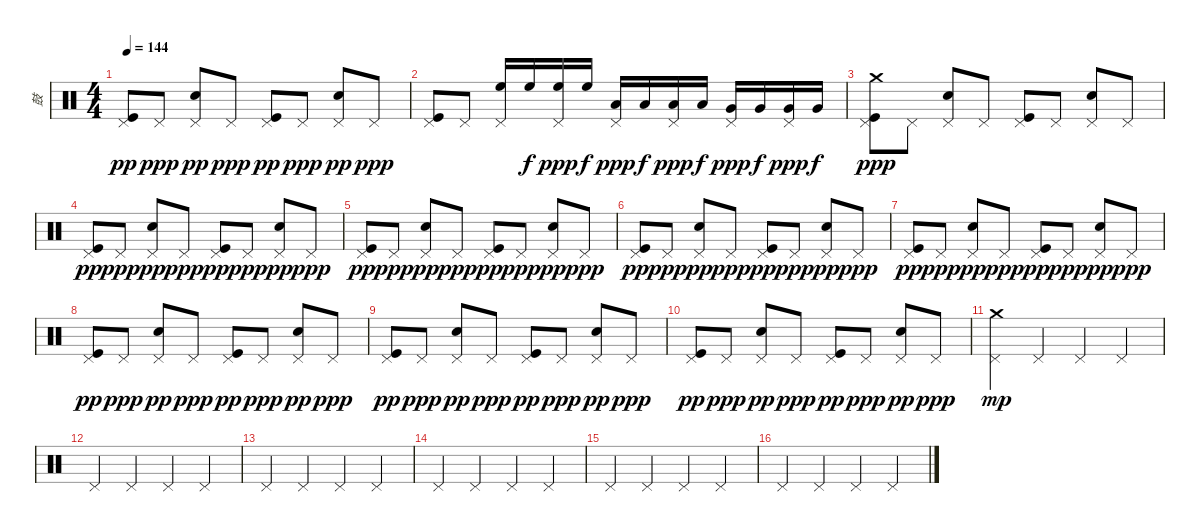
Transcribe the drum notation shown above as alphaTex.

\track ("鼓" "鼓") {instrument percussion}
\staff {score}
\articulation defaults
\ts (4 4)
\tempo 144
\clef neutral
\ks c
("Kick (hit)" "Pedal Hi-Hat (hit)").8{dy pp} "Pedal Hi-Hat (hit)".8{dy ppp} ("Snare (hit) 2" "Pedal Hi-Hat (hit)").8{dy pp} "Pedal Hi-Hat (hit)".8{dy ppp} ("Kick (hit)" "Pedal Hi-Hat (hit)").8{dy pp} "Pedal Hi-Hat (hit)".8{dy ppp} ("Snare (hit) 2" "Pedal Hi-Hat (hit)").8{dy pp} "Pedal Hi-Hat (hit)".8{dy ppp} |
("Kick (hit)" "Pedal Hi-Hat (hit)").8 "Pedal Hi-Hat (hit)".8 ("High Floor Tom (hit)" "Pedal Hi-Hat (hit)").16 "High Floor Tom (hit)".16{dy f} ("High Floor Tom (hit)" "Pedal Hi-Hat (hit)").16{dy ppp} "High Floor Tom (hit)".16{dy f} ("Low Tom (hit)" "Pedal Hi-Hat (hit)").16{dy ppp} "Low Tom (hit)".16{dy f} ("Low Tom (hit)" "Pedal Hi-Hat (hit)").16{dy ppp} "Low Tom (hit)".16{dy f} ("Very Low Tom (hit)" "Pedal Hi-Hat (hit)").16{dy ppp} "Very Low Tom (hit)".16{dy f} ("Very Low Tom (hit)" "Pedal Hi-Hat (hit)").16{dy ppp} "Very Low Tom (hit)".16{dy f} |
("Crash medium (hit)" "Kick (hit)" "Pedal Hi-Hat (hit)").8{dy ppp} "Pedal Hi-Hat (hit)".8 ("Snare (hit) 2" "Pedal Hi-Hat (hit)").8 "Pedal Hi-Hat (hit)".8 ("Kick (hit)" "Pedal Hi-Hat (hit)").8 "Pedal Hi-Hat (hit)".8 ("Snare (hit) 2" "Pedal Hi-Hat (hit)").8 "Pedal Hi-Hat (hit)".8 |
("Kick (hit)" "Pedal Hi-Hat (hit)").8{dy pp} "Pedal Hi-Hat (hit)".8{dy ppp} ("Snare (hit) 2" "Pedal Hi-Hat (hit)").8{dy pp} "Pedal Hi-Hat (hit)".8{dy ppp} ("Kick (hit)" "Pedal Hi-Hat (hit)").8{dy pp} "Pedal Hi-Hat (hit)".8{dy ppp} ("Snare (hit) 2" "Pedal Hi-Hat (hit)").8{dy pp} "Pedal Hi-Hat (hit)".8{dy ppp} |
("Kick (hit)" "Pedal Hi-Hat (hit)").8{dy pp} "Pedal Hi-Hat (hit)".8{dy ppp} ("Snare (hit) 2" "Pedal Hi-Hat (hit)").8{dy pp} "Pedal Hi-Hat (hit)".8{dy ppp} ("Kick (hit)" "Pedal Hi-Hat (hit)").8{dy pp} "Pedal Hi-Hat (hit)".8{dy ppp} ("Snare (hit) 2" "Pedal Hi-Hat (hit)").8{dy pp} "Pedal Hi-Hat (hit)".8{dy ppp} |
("Kick (hit)" "Pedal Hi-Hat (hit)").8{dy pp} "Pedal Hi-Hat (hit)".8{dy ppp} ("Snare (hit) 2" "Pedal Hi-Hat (hit)").8{dy pp} "Pedal Hi-Hat (hit)".8{dy ppp} ("Kick (hit)" "Pedal Hi-Hat (hit)").8{dy pp} "Pedal Hi-Hat (hit)".8{dy ppp} ("Snare (hit) 2" "Pedal Hi-Hat (hit)").8{dy pp} "Pedal Hi-Hat (hit)".8{dy ppp} |
("Kick (hit)" "Pedal Hi-Hat (hit)").8{dy pp} "Pedal Hi-Hat (hit)".8{dy ppp} ("Snare (hit) 2" "Pedal Hi-Hat (hit)").8{dy pp} "Pedal Hi-Hat (hit)".8{dy ppp} ("Kick (hit)" "Pedal Hi-Hat (hit)").8{dy pp} "Pedal Hi-Hat (hit)".8{dy ppp} ("Snare (hit) 2" "Pedal Hi-Hat (hit)").8{dy pp} "Pedal Hi-Hat (hit)".8{dy ppp} |
("Kick (hit)" "Pedal Hi-Hat (hit)").8{dy pp} "Pedal Hi-Hat (hit)".8{dy ppp} ("Snare (hit) 2" "Pedal Hi-Hat (hit)").8{dy pp} "Pedal Hi-Hat (hit)".8{dy ppp} ("Kick (hit)" "Pedal Hi-Hat (hit)").8{dy pp} "Pedal Hi-Hat (hit)".8{dy ppp} ("Snare (hit) 2" "Pedal Hi-Hat (hit)").8{dy pp} "Pedal Hi-Hat (hit)".8{dy ppp} |
("Kick (hit)" "Pedal Hi-Hat (hit)").8{dy pp} "Pedal Hi-Hat (hit)".8{dy ppp} ("Snare (hit) 2" "Pedal Hi-Hat (hit)").8{dy pp} "Pedal Hi-Hat (hit)".8{dy ppp} ("Kick (hit)" "Pedal Hi-Hat (hit)").8{dy pp} "Pedal Hi-Hat (hit)".8{dy ppp} ("Snare (hit) 2" "Pedal Hi-Hat (hit)").8{dy pp} "Pedal Hi-Hat (hit)".8{dy ppp} |
("Kick (hit)" "Pedal Hi-Hat (hit)").8{dy pp} "Pedal Hi-Hat (hit)".8{dy ppp} ("Snare (hit) 2" "Pedal Hi-Hat (hit)").8{dy pp} "Pedal Hi-Hat (hit)".8{dy ppp} ("Kick (hit)" "Pedal Hi-Hat (hit)").8{dy pp} "Pedal Hi-Hat (hit)".8{dy ppp} ("Snare (hit) 2" "Pedal Hi-Hat (hit)").8{dy pp} "Pedal Hi-Hat (hit)".8{dy ppp} |
("Crash medium (hit)" "Pedal Hi-Hat (hit)").4{dy mp} "Pedal Hi-Hat (hit)".4 "Pedal Hi-Hat (hit)".4 "Pedal Hi-Hat (hit)".4 |
"Pedal Hi-Hat (hit)".4 "Pedal Hi-Hat (hit)".4 "Pedal Hi-Hat (hit)".4 "Pedal Hi-Hat (hit)".4 |
"Pedal Hi-Hat (hit)".4 "Pedal Hi-Hat (hit)".4 "Pedal Hi-Hat (hit)".4 "Pedal Hi-Hat (hit)".4 |
"Pedal Hi-Hat (hit)".4 "Pedal Hi-Hat (hit)".4 "Pedal Hi-Hat (hit)".4 "Pedal Hi-Hat (hit)".4 |
"Pedal Hi-Hat (hit)".4 "Pedal Hi-Hat (hit)".4 "Pedal Hi-Hat (hit)".4 "Pedal Hi-Hat (hit)".4 |
"Pedal Hi-Hat (hit)".4 "Pedal Hi-Hat (hit)".4 "Pedal Hi-Hat (hit)".4 "Pedal Hi-Hat (hit)".4
